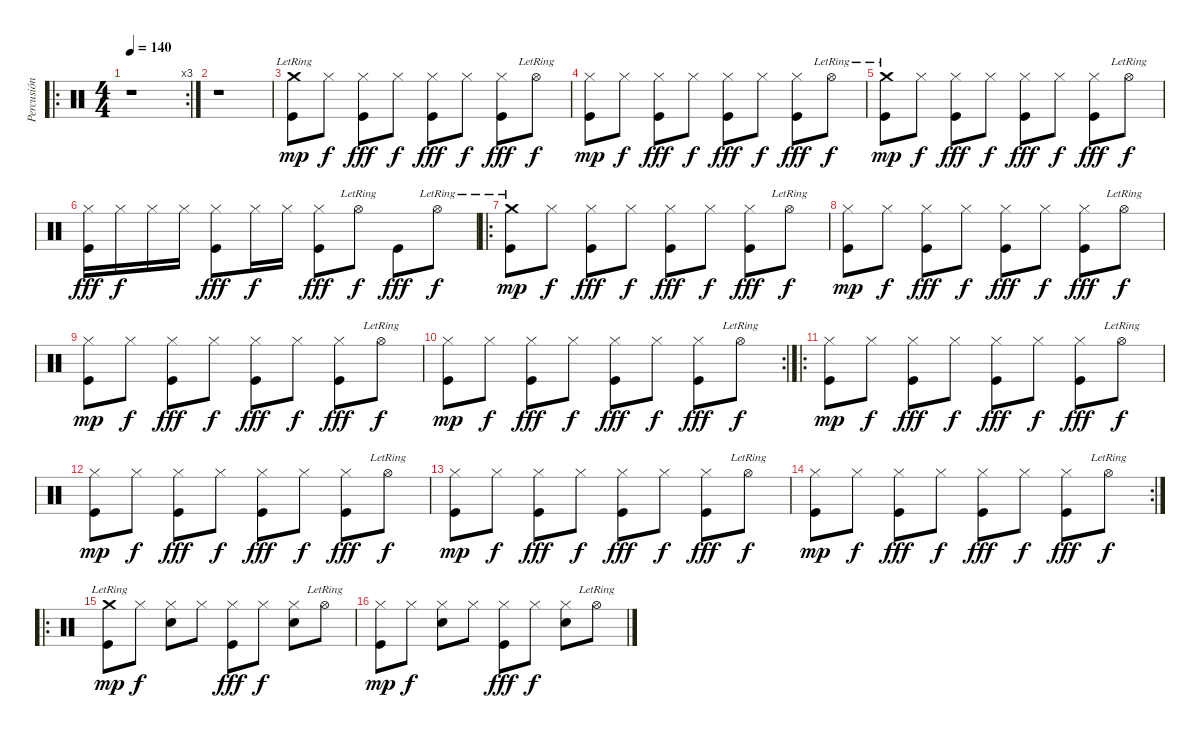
\track ("Percusión" "Percusión") {instrument percussion}
\staff {score}
\articulation defaults
\ro
\rc 3
\ts (4 4)
\tempo 140
\clef neutral
\ks c
r.1{dy mp} |
r.1 |
("Kick (hit)" "Crash medium (hit)"{lr}).8 "Hi-Hat (closed)".8{dy f} ("Kick (hit)" "Hi-Hat (closed)").8{dy fff} "Hi-Hat (closed)".8{dy f} ("Kick (hit)" "Hi-Hat (closed)").8{dy fff} "Hi-Hat (closed)".8{dy f} ("Kick (hit)" "Hi-Hat (closed)").8{dy fff} "Hi-Hat (open)"{lr}.8{dy f} |
("Kick (hit)" "Hi-Hat (closed)").8{dy mp} "Hi-Hat (closed)".8{dy f} ("Kick (hit)" "Hi-Hat (closed)").8{dy fff} "Hi-Hat (closed)".8{dy f} ("Kick (hit)" "Hi-Hat (closed)").8{dy fff} "Hi-Hat (closed)".8{dy f} ("Kick (hit)" "Hi-Hat (closed)").8{dy fff} "Hi-Hat (open)"{lr}.8{dy f} |
("Kick (hit)" "Crash medium (hit)"{lr}).8{dy mp} "Hi-Hat (closed)".8{dy f} ("Kick (hit)" "Hi-Hat (closed)").8{dy fff} "Hi-Hat (closed)".8{dy f} ("Kick (hit)" "Hi-Hat (closed)").8{dy fff} "Hi-Hat (closed)".8{dy f} ("Kick (hit)" "Hi-Hat (closed)").8{dy fff} "Hi-Hat (open)"{lr}.8{dy f} |
("Kick (hit)" "Hi-Hat (closed)").16{dy fff} "Hi-Hat (closed)".16{dy f} "Hi-Hat (closed)".16 "Hi-Hat (closed)".16 ("Kick (hit)" "Hi-Hat (closed)").8{dy fff} "Hi-Hat (closed)".16{dy f} "Hi-Hat (closed)".16 ("Kick (hit)" "Hi-Hat (closed)").8{dy fff} "Hi-Hat (open)"{lr}.8{dy f} "Kick (hit)".8{dy fff} "Hi-Hat (open)"{lr}.8{dy f} |
\ro
("Kick (hit)" "Crash medium (hit)"{lr}).8{dy mp} "Hi-Hat (closed)".8{dy f} ("Kick (hit)" "Hi-Hat (closed)").8{dy fff} "Hi-Hat (closed)".8{dy f} ("Kick (hit)" "Hi-Hat (closed)").8{dy fff} "Hi-Hat (closed)".8{dy f} ("Kick (hit)" "Hi-Hat (closed)").8{dy fff} "Hi-Hat (open)"{lr}.8{dy f} |
("Kick (hit)" "Hi-Hat (closed)").8{dy mp} "Hi-Hat (closed)".8{dy f} ("Kick (hit)" "Hi-Hat (closed)").8{dy fff} "Hi-Hat (closed)".8{dy f} ("Kick (hit)" "Hi-Hat (closed)").8{dy fff} "Hi-Hat (closed)".8{dy f} ("Kick (hit)" "Hi-Hat (closed)").8{dy fff} "Hi-Hat (open)"{lr}.8{dy f} |
("Kick (hit)" "Hi-Hat (closed)").8{dy mp} "Hi-Hat (closed)".8{dy f} ("Kick (hit)" "Hi-Hat (closed)").8{dy fff} "Hi-Hat (closed)".8{dy f} ("Kick (hit)" "Hi-Hat (closed)").8{dy fff} "Hi-Hat (closed)".8{dy f} ("Kick (hit)" "Hi-Hat (closed)").8{dy fff} "Hi-Hat (open)"{lr}.8{dy f} |
\rc 2
("Kick (hit)" "Hi-Hat (closed)").8{dy mp} "Hi-Hat (closed)".8{dy f} ("Kick (hit)" "Hi-Hat (closed)").8{dy fff} "Hi-Hat (closed)".8{dy f} ("Kick (hit)" "Hi-Hat (closed)").8{dy fff} "Hi-Hat (closed)".8{dy f} ("Kick (hit)" "Hi-Hat (closed)").8{dy fff} "Hi-Hat (open)"{lr}.8{dy f} |
\ro
("Kick (hit)" "Hi-Hat (closed)").8{dy mp} "Hi-Hat (closed)".8{dy f} ("Kick (hit)" "Hi-Hat (closed)").8{dy fff} "Hi-Hat (closed)".8{dy f} ("Kick (hit)" "Hi-Hat (closed)").8{dy fff} "Hi-Hat (closed)".8{dy f} ("Kick (hit)" "Hi-Hat (closed)").8{dy fff} "Hi-Hat (open)"{lr}.8{dy f} |
("Kick (hit)" "Hi-Hat (closed)").8{dy mp} "Hi-Hat (closed)".8{dy f} ("Kick (hit)" "Hi-Hat (closed)").8{dy fff} "Hi-Hat (closed)".8{dy f} ("Kick (hit)" "Hi-Hat (closed)").8{dy fff} "Hi-Hat (closed)".8{dy f} ("Kick (hit)" "Hi-Hat (closed)").8{dy fff} "Hi-Hat (open)"{lr}.8{dy f} |
("Kick (hit)" "Hi-Hat (closed)").8{dy mp} "Hi-Hat (closed)".8{dy f} ("Kick (hit)" "Hi-Hat (closed)").8{dy fff} "Hi-Hat (closed)".8{dy f} ("Kick (hit)" "Hi-Hat (closed)").8{dy fff} "Hi-Hat (closed)".8{dy f} ("Kick (hit)" "Hi-Hat (closed)").8{dy fff} "Hi-Hat (open)"{lr}.8{dy f} |
\rc 2
("Kick (hit)" "Hi-Hat (closed)").8{dy mp} "Hi-Hat (closed)".8{dy f} ("Kick (hit)" "Hi-Hat (closed)").8{dy fff} "Hi-Hat (closed)".8{dy f} ("Kick (hit)" "Hi-Hat (closed)").8{dy fff} "Hi-Hat (closed)".8{dy f} ("Kick (hit)" "Hi-Hat (closed)").8{dy fff} "Hi-Hat (open)"{lr}.8{dy f} |
\ro
("Kick (hit)" "Crash medium (hit)"{lr}).8{dy mp} "Hi-Hat (closed)".8{dy f} ("Snare (hit) 2" "Hi-Hat (closed)").8 "Hi-Hat (closed)".8 ("Kick (hit)" "Hi-Hat (closed)").8{dy fff} "Hi-Hat (closed)".8{dy f} ("Snare (hit) 2" "Hi-Hat (closed)").8 "Hi-Hat (open)"{lr}.8 |
("Kick (hit)" "Hi-Hat (closed)").8{dy mp} "Hi-Hat (closed)".8{dy f} ("Snare (hit) 2" "Hi-Hat (closed)").8 "Hi-Hat (closed)".8 ("Kick (hit)" "Hi-Hat (closed)").8{dy fff} "Hi-Hat (closed)".8{dy f} ("Snare (hit) 2" "Hi-Hat (closed)").8 "Hi-Hat (open)"{lr}.8
